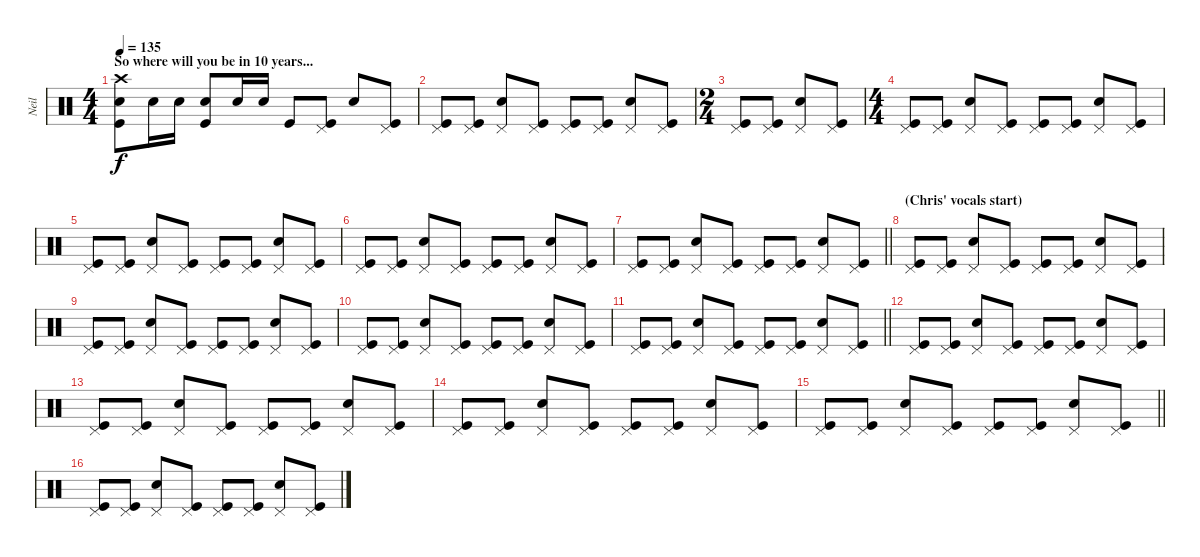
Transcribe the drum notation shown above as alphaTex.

\track ("Neil" "Neil") {instrument percussion}
\staff {score}
\articulation defaults
\ts (4 4)
\section ("" "So where will you be in 10 years...")
\tempo 135
\clef neutral
\ks c
("Crash high (hit)" "Snare (hit) 2" "Kick (hit)").8{dy f} "Snare (hit) 2".16 "Snare (hit) 2".16 ("Snare (hit) 2" "Kick (hit)").8 "Snare (hit) 2".16 "Snare (hit) 2".16 "Kick (hit)".8 ("Pedal Hi-Hat (hit)" "Kick (hit)").8 "Snare (hit) 2".8 ("Pedal Hi-Hat (hit)" "Kick (hit)").8 |
("Pedal Hi-Hat (hit)" "Kick (hit)").8 ("Pedal Hi-Hat (hit)" "Kick (hit)").8 ("Pedal Hi-Hat (hit)" "Snare (hit) 2").8 ("Pedal Hi-Hat (hit)" "Kick (hit)").8 ("Pedal Hi-Hat (hit)" "Kick (hit)").8 ("Pedal Hi-Hat (hit)" "Kick (hit)").8 ("Pedal Hi-Hat (hit)" "Snare (hit) 2").8 ("Pedal Hi-Hat (hit)" "Kick (hit)").8 |
\ts (2 4)
("Pedal Hi-Hat (hit)" "Kick (hit)").8 ("Pedal Hi-Hat (hit)" "Kick (hit)").8 ("Pedal Hi-Hat (hit)" "Snare (hit) 2").8 ("Pedal Hi-Hat (hit)" "Kick (hit)").8 |
\ts (4 4)
("Pedal Hi-Hat (hit)" "Kick (hit)").8 ("Pedal Hi-Hat (hit)" "Kick (hit)").8 ("Pedal Hi-Hat (hit)" "Snare (hit) 2").8 ("Pedal Hi-Hat (hit)" "Kick (hit)").8 ("Pedal Hi-Hat (hit)" "Kick (hit)").8 ("Pedal Hi-Hat (hit)" "Kick (hit)").8 ("Pedal Hi-Hat (hit)" "Snare (hit) 2").8 ("Pedal Hi-Hat (hit)" "Kick (hit)").8 |
("Pedal Hi-Hat (hit)" "Kick (hit)").8 ("Pedal Hi-Hat (hit)" "Kick (hit)").8 ("Pedal Hi-Hat (hit)" "Snare (hit) 2").8 ("Pedal Hi-Hat (hit)" "Kick (hit)").8 ("Pedal Hi-Hat (hit)" "Kick (hit)").8 ("Pedal Hi-Hat (hit)" "Kick (hit)").8 ("Pedal Hi-Hat (hit)" "Snare (hit) 2").8 ("Pedal Hi-Hat (hit)" "Kick (hit)").8 |
("Pedal Hi-Hat (hit)" "Kick (hit)").8 ("Pedal Hi-Hat (hit)" "Kick (hit)").8 ("Pedal Hi-Hat (hit)" "Snare (hit) 2").8 ("Pedal Hi-Hat (hit)" "Kick (hit)").8 ("Pedal Hi-Hat (hit)" "Kick (hit)").8 ("Pedal Hi-Hat (hit)" "Kick (hit)").8 ("Pedal Hi-Hat (hit)" "Snare (hit) 2").8 ("Pedal Hi-Hat (hit)" "Kick (hit)").8 |
\barLineRight lightlight
("Pedal Hi-Hat (hit)" "Kick (hit)").8 ("Pedal Hi-Hat (hit)" "Kick (hit)").8 ("Pedal Hi-Hat (hit)" "Snare (hit) 2").8 ("Pedal Hi-Hat (hit)" "Kick (hit)").8 ("Pedal Hi-Hat (hit)" "Kick (hit)").8 ("Pedal Hi-Hat (hit)" "Kick (hit)").8 ("Pedal Hi-Hat (hit)" "Snare (hit) 2").8 ("Pedal Hi-Hat (hit)" "Kick (hit)").8 |
\section ("" "(Chris' vocals start)")
("Pedal Hi-Hat (hit)" "Kick (hit)").8 ("Pedal Hi-Hat (hit)" "Kick (hit)").8 ("Pedal Hi-Hat (hit)" "Snare (hit) 2").8 ("Pedal Hi-Hat (hit)" "Kick (hit)").8 ("Pedal Hi-Hat (hit)" "Kick (hit)").8 ("Pedal Hi-Hat (hit)" "Kick (hit)").8 ("Pedal Hi-Hat (hit)" "Snare (hit) 2").8 ("Pedal Hi-Hat (hit)" "Kick (hit)").8 |
("Pedal Hi-Hat (hit)" "Kick (hit)").8 ("Pedal Hi-Hat (hit)" "Kick (hit)").8 ("Pedal Hi-Hat (hit)" "Snare (hit) 2").8 ("Pedal Hi-Hat (hit)" "Kick (hit)").8 ("Pedal Hi-Hat (hit)" "Kick (hit)").8 ("Pedal Hi-Hat (hit)" "Kick (hit)").8 ("Pedal Hi-Hat (hit)" "Snare (hit) 2").8 ("Pedal Hi-Hat (hit)" "Kick (hit)").8 |
("Pedal Hi-Hat (hit)" "Kick (hit)").8 ("Pedal Hi-Hat (hit)" "Kick (hit)").8 ("Pedal Hi-Hat (hit)" "Snare (hit) 2").8 ("Pedal Hi-Hat (hit)" "Kick (hit)").8 ("Pedal Hi-Hat (hit)" "Kick (hit)").8 ("Pedal Hi-Hat (hit)" "Kick (hit)").8 ("Pedal Hi-Hat (hit)" "Snare (hit) 2").8 ("Pedal Hi-Hat (hit)" "Kick (hit)").8 |
\barLineRight lightlight
("Pedal Hi-Hat (hit)" "Kick (hit)").8 ("Pedal Hi-Hat (hit)" "Kick (hit)").8 ("Pedal Hi-Hat (hit)" "Snare (hit) 2").8 ("Pedal Hi-Hat (hit)" "Kick (hit)").8 ("Pedal Hi-Hat (hit)" "Kick (hit)").8 ("Pedal Hi-Hat (hit)" "Kick (hit)").8 ("Pedal Hi-Hat (hit)" "Snare (hit) 2").8 ("Pedal Hi-Hat (hit)" "Kick (hit)").8 |
("Pedal Hi-Hat (hit)" "Kick (hit)").8 ("Pedal Hi-Hat (hit)" "Kick (hit)").8 ("Pedal Hi-Hat (hit)" "Snare (hit) 2").8 ("Pedal Hi-Hat (hit)" "Kick (hit)").8 ("Pedal Hi-Hat (hit)" "Kick (hit)").8 ("Pedal Hi-Hat (hit)" "Kick (hit)").8 ("Pedal Hi-Hat (hit)" "Snare (hit) 2").8 ("Pedal Hi-Hat (hit)" "Kick (hit)").8 |
("Pedal Hi-Hat (hit)" "Kick (hit)").8 ("Pedal Hi-Hat (hit)" "Kick (hit)").8 ("Pedal Hi-Hat (hit)" "Snare (hit) 2").8 ("Pedal Hi-Hat (hit)" "Kick (hit)").8 ("Pedal Hi-Hat (hit)" "Kick (hit)").8 ("Pedal Hi-Hat (hit)" "Kick (hit)").8 ("Pedal Hi-Hat (hit)" "Snare (hit) 2").8 ("Pedal Hi-Hat (hit)" "Kick (hit)").8 |
("Pedal Hi-Hat (hit)" "Kick (hit)").8 ("Pedal Hi-Hat (hit)" "Kick (hit)").8 ("Pedal Hi-Hat (hit)" "Snare (hit) 2").8 ("Pedal Hi-Hat (hit)" "Kick (hit)").8 ("Pedal Hi-Hat (hit)" "Kick (hit)").8 ("Pedal Hi-Hat (hit)" "Kick (hit)").8 ("Pedal Hi-Hat (hit)" "Snare (hit) 2").8 ("Pedal Hi-Hat (hit)" "Kick (hit)").8 |
\barLineRight lightlight
("Pedal Hi-Hat (hit)" "Kick (hit)").8 ("Pedal Hi-Hat (hit)" "Kick (hit)").8 ("Pedal Hi-Hat (hit)" "Snare (hit) 2").8 ("Pedal Hi-Hat (hit)" "Kick (hit)").8 ("Pedal Hi-Hat (hit)" "Kick (hit)").8 ("Pedal Hi-Hat (hit)" "Kick (hit)").8 ("Pedal Hi-Hat (hit)" "Snare (hit) 2").8 ("Pedal Hi-Hat (hit)" "Kick (hit)").8 |
("Pedal Hi-Hat (hit)" "Kick (hit)").8 ("Pedal Hi-Hat (hit)" "Kick (hit)").8 ("Pedal Hi-Hat (hit)" "Snare (hit) 2").8 ("Pedal Hi-Hat (hit)" "Kick (hit)").8 ("Pedal Hi-Hat (hit)" "Kick (hit)").8 ("Pedal Hi-Hat (hit)" "Kick (hit)").8 ("Pedal Hi-Hat (hit)" "Snare (hit) 2").8 ("Pedal Hi-Hat (hit)" "Kick (hit)").8
